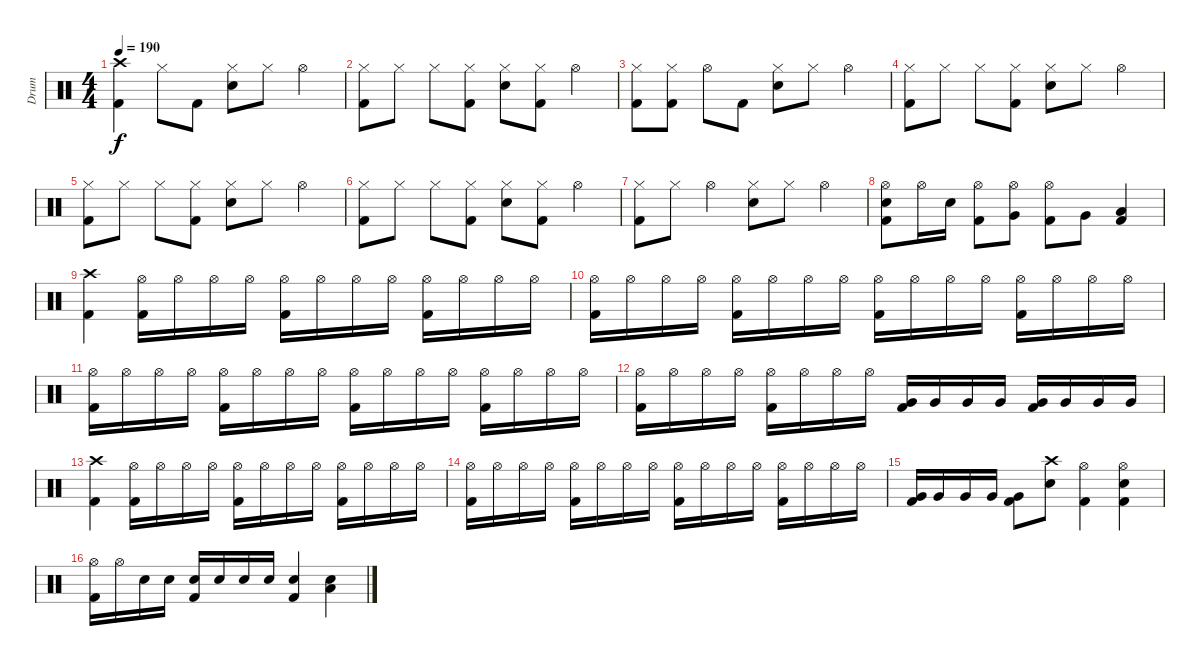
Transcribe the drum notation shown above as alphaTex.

\track ("Drum" "Drum") {instrument percussion}
\staff {score}
\articulation defaults
\ts (4 4)
\tempo 190
\clef neutral
\ks c
("Crash high (hit)" "Kick (hit) 2").4{dy f} "Hi-Hat (closed)".8 "Kick (hit) 2".8 ("Hi-Hat (closed)" "Electric Snare (hit)").8 "Hi-Hat (closed)".8 "Hi-Hat (open)".4 |
("Hi-Hat (closed)" "Kick (hit) 2").8 "Hi-Hat (closed)".8 "Hi-Hat (closed)".8 ("Hi-Hat (closed)" "Kick (hit) 2").8 ("Hi-Hat (closed)" "Electric Snare (hit)").8 ("Hi-Hat (closed)" "Kick (hit) 2").8 "Hi-Hat (open)".4 |
("Hi-Hat (closed)" "Kick (hit) 2").8 ("Hi-Hat (closed)" "Kick (hit) 2").8 "Hi-Hat (open)".8 "Kick (hit) 2".8 ("Hi-Hat (closed)" "Electric Snare (hit)").8 "Hi-Hat (closed)".8 "Hi-Hat (open)".4 |
("Hi-Hat (closed)" "Kick (hit) 2").8 "Hi-Hat (closed)".8 "Hi-Hat (closed)".8 ("Hi-Hat (closed)" "Kick (hit) 2").8 ("Hi-Hat (closed)" "Electric Snare (hit)").8 "Hi-Hat (closed)".8 "Hi-Hat (open)".4 |
("Hi-Hat (closed)" "Kick (hit) 2").8 "Hi-Hat (closed)".8 "Hi-Hat (closed)".8 ("Hi-Hat (closed)" "Kick (hit) 2").8 ("Hi-Hat (closed)" "Electric Snare (hit)").8 "Hi-Hat (closed)".8 "Hi-Hat (open)".4 |
("Hi-Hat (closed)" "Kick (hit) 2").8 "Hi-Hat (closed)".8 "Hi-Hat (closed)".8 ("Hi-Hat (closed)" "Kick (hit) 2").8 ("Hi-Hat (closed)" "Electric Snare (hit)").8 ("Hi-Hat (closed)" "Kick (hit) 2").8 "Hi-Hat (open)".4 |
("Hi-Hat (closed)" "Kick (hit) 2").8 "Hi-Hat (closed)".8 "Hi-Hat (open)".4 ("Hi-Hat (closed)" "Electric Snare (hit)").8 "Hi-Hat (closed)".8 "Hi-Hat (open)".4 |
("Hi-Hat (open)" "Electric Snare (hit)" "Kick (hit) 2").8 "Hi-Hat (open)".16 "Electric Snare (hit)".16 ("Hi-Hat (open)" "Kick (hit) 2").8 ("Hi-Hat (open)" "Very Low Tom (hit)").8 ("Hi-Hat (open)" "Kick (hit) 2").8 "Very Low Tom (hit)".8 ("Low Floor Tom (hit)" "Kick (hit) 2").4 |
("Crash high (hit)" "Kick (hit) 2").4 ("Hi-Hat (open)" "Kick (hit) 2").16 "Hi-Hat (open)".16 "Hi-Hat (open)".16 "Hi-Hat (open)".16 ("Hi-Hat (open)" "Kick (hit) 2").16 "Hi-Hat (open)".16 "Hi-Hat (open)".16 "Hi-Hat (open)".16 ("Hi-Hat (open)" "Kick (hit) 2").16 "Hi-Hat (open)".16 "Hi-Hat (open)".16 "Hi-Hat (open)".16 |
("Hi-Hat (open)" "Kick (hit) 2").16 "Hi-Hat (open)".16 "Hi-Hat (open)".16 "Hi-Hat (open)".16 ("Hi-Hat (open)" "Kick (hit) 2").16 "Hi-Hat (open)".16 "Hi-Hat (open)".16 "Hi-Hat (open)".16 ("Hi-Hat (open)" "Kick (hit) 2").16 "Hi-Hat (open)".16 "Hi-Hat (open)".16 "Hi-Hat (open)".16 ("Hi-Hat (open)" "Kick (hit) 2").16 "Hi-Hat (open)".16 "Hi-Hat (open)".16 "Hi-Hat (open)".16 |
("Hi-Hat (open)" "Kick (hit) 2").16 "Hi-Hat (open)".16 "Hi-Hat (open)".16 "Hi-Hat (open)".16 ("Hi-Hat (open)" "Kick (hit) 2").16 "Hi-Hat (open)".16 "Hi-Hat (open)".16 "Hi-Hat (open)".16 ("Hi-Hat (open)" "Kick (hit) 2").16 "Hi-Hat (open)".16 "Hi-Hat (open)".16 "Hi-Hat (open)".16 ("Hi-Hat (open)" "Kick (hit) 2").16 "Hi-Hat (open)".16 "Hi-Hat (open)".16 "Hi-Hat (open)".16 |
("Hi-Hat (open)" "Kick (hit) 2").16 "Hi-Hat (open)".16 "Hi-Hat (open)".16 "Hi-Hat (open)".16 ("Hi-Hat (open)" "Kick (hit) 2").16 "Hi-Hat (open)".16 "Hi-Hat (open)".16 "Hi-Hat (open)".16 ("Very Low Tom (hit)" "Kick (hit) 2").16 "Very Low Tom (hit)".16 "Very Low Tom (hit)".16 "Very Low Tom (hit)".16 ("Very Low Tom (hit)" "Kick (hit) 2").16 "Very Low Tom (hit)".16 "Very Low Tom (hit)".16 "Very Low Tom (hit)".16 |
("Crash high (hit)" "Kick (hit) 2").4 ("Hi-Hat (open)" "Kick (hit) 2").16 "Hi-Hat (open)".16 "Hi-Hat (open)".16 "Hi-Hat (open)".16 ("Hi-Hat (open)" "Kick (hit) 2").16 "Hi-Hat (open)".16 "Hi-Hat (open)".16 "Hi-Hat (open)".16 ("Hi-Hat (open)" "Kick (hit) 2").16 "Hi-Hat (open)".16 "Hi-Hat (open)".16 "Hi-Hat (open)".16 |
("Hi-Hat (open)" "Kick (hit) 2").16 "Hi-Hat (open)".16 "Hi-Hat (open)".16 "Hi-Hat (open)".16 ("Hi-Hat (open)" "Kick (hit) 2").16 "Hi-Hat (open)".16 "Hi-Hat (open)".16 "Hi-Hat (open)".16 ("Hi-Hat (open)" "Kick (hit) 2").16 "Hi-Hat (open)".16 "Hi-Hat (open)".16 "Hi-Hat (open)".16 ("Hi-Hat (open)" "Kick (hit) 2").16 "Hi-Hat (open)".16 "Hi-Hat (open)".16 "Hi-Hat (open)".16 |
("Very Low Tom (hit)" "Kick (hit) 2").16 "Very Low Tom (hit)".16 "Very Low Tom (hit)".16 "Very Low Tom (hit)".16 ("Very Low Tom (hit)" "Kick (hit) 2").8 ("Crash high (hit)" "Electric Snare (hit)").8 ("Hi-Hat (open)" "Kick (hit) 2").4 ("Hi-Hat (open)" "Electric Snare (hit)" "Kick (hit) 2").4 |
("Hi-Hat (open)" "Kick (hit) 2").16 "Hi-Hat (open)".16 "Electric Snare (hit)".16 "Electric Snare (hit)".16 ("Electric Snare (hit)" "Kick (hit) 2").16 "Electric Snare (hit)".16 "Electric Snare (hit)".16 "Electric Snare (hit)".16 ("Electric Snare (hit)" "Kick (hit) 2").4 ("Electric Snare (hit)" "Low Floor Tom (hit)").4
